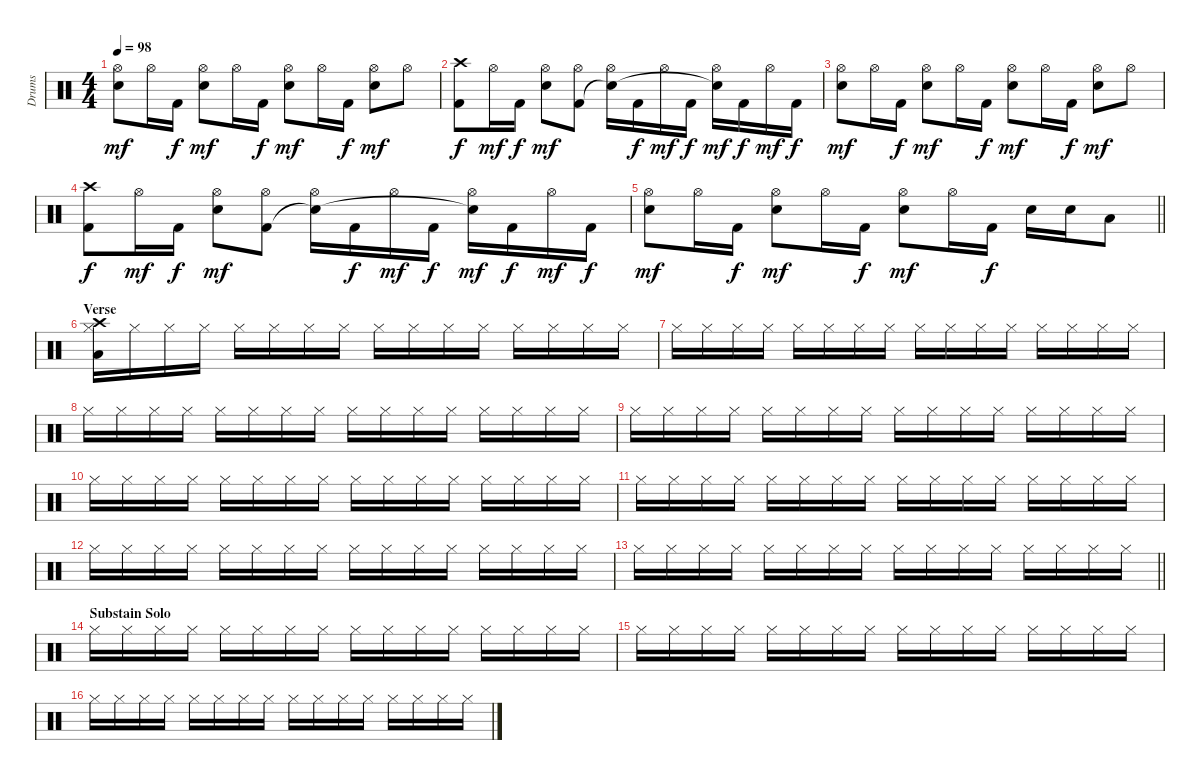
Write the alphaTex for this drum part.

\track ("Drums" "Drums") {instrument percussion}
\staff {score}
\articulation defaults
\ts (4 4)
\tempo 98
\clef neutral
\ks c
("Hi-Hat (open)" "Electric Snare (hit)").8{dy mf} "Hi-Hat (open)".16 "Kick (hit) 2".16{dy f} ("Hi-Hat (open)" "Electric Snare (hit)").8{dy mf} "Hi-Hat (open)".16 "Kick (hit) 2".16{dy f} ("Hi-Hat (open)" "Electric Snare (hit)").8{dy mf} "Hi-Hat (open)".16 "Kick (hit) 2".16{dy f} ("Hi-Hat (open)" "Electric Snare (hit)").8{dy mf} "Hi-Hat (open)".8 |
("Crash high (hit)" "Kick (hit) 2").8{dy f} "Hi-Hat (open)".16{dy mf} "Kick (hit) 2".16{dy f} ("Hi-Hat (open)" "Electric Snare (hit)").8{dy mf} ("Hi-Hat (open)" "Kick (hit) 2").8 ("Hi-Hat (open)" "Snare (hit)"{t}).16 "Kick (hit) 2".16{dy f} "Hi-Hat (open)".16{dy mf} "Kick (hit) 2".16{dy f} ("Hi-Hat (open)" "Snare (hit)"{t}).16{dy mf} "Kick (hit) 2".16{dy f} "Hi-Hat (open)".16{dy mf} "Kick (hit) 2".16{dy f} |
("Hi-Hat (open)" "Electric Snare (hit)").8{dy mf} "Hi-Hat (open)".16 "Kick (hit) 2".16{dy f} ("Hi-Hat (open)" "Electric Snare (hit)").8{dy mf} "Hi-Hat (open)".16 "Kick (hit) 2".16{dy f} ("Hi-Hat (open)" "Electric Snare (hit)").8{dy mf} "Hi-Hat (open)".16 "Kick (hit) 2".16{dy f} ("Hi-Hat (open)" "Electric Snare (hit)").8{dy mf} "Hi-Hat (open)".8 |
("Crash high (hit)" "Kick (hit) 2").8{dy f} "Hi-Hat (open)".16{dy mf} "Kick (hit) 2".16{dy f} ("Hi-Hat (open)" "Electric Snare (hit)").8{dy mf} ("Hi-Hat (open)" "Kick (hit) 2").8 ("Hi-Hat (open)" "Snare (hit)"{t}).16 "Kick (hit) 2".16{dy f} "Hi-Hat (open)".16{dy mf} "Kick (hit) 2".16{dy f} ("Hi-Hat (open)" "Snare (hit)"{t}).16{dy mf} "Kick (hit) 2".16{dy f} "Hi-Hat (open)".16{dy mf} "Kick (hit) 2".16{dy f} |
\barLineRight lightlight
("Hi-Hat (open)" "Electric Snare (hit)").8{dy mf} "Hi-Hat (open)".16 "Kick (hit) 2".16{dy f} ("Hi-Hat (open)" "Electric Snare (hit)").8{dy mf} "Hi-Hat (open)".16 "Kick (hit) 2".16{dy f} ("Hi-Hat (open)" "Electric Snare (hit)").8{dy mf} "Hi-Hat (open)".16 "Kick (hit) 2".16{dy f} "Electric Snare (hit)".16 "Electric Snare (hit)".16 "Low Tom (hit)".8 |
\section ("" "Verse")
("Crash high (hit)" "Low Floor Tom (hit)" "Hi-Hat (closed)").16 "Hi-Hat (closed)".16 "Hi-Hat (closed)".16 "Hi-Hat (closed)".16 "Hi-Hat (closed)".16 "Hi-Hat (closed)".16 "Hi-Hat (closed)".16 "Hi-Hat (closed)".16 "Hi-Hat (closed)".16 "Hi-Hat (closed)".16 "Hi-Hat (closed)".16 "Hi-Hat (closed)".16 "Hi-Hat (closed)".16 "Hi-Hat (closed)".16 "Hi-Hat (closed)".16 "Hi-Hat (closed)".16 |
"Hi-Hat (closed)".16 "Hi-Hat (closed)".16 "Hi-Hat (closed)".16 "Hi-Hat (closed)".16 "Hi-Hat (closed)".16 "Hi-Hat (closed)".16 "Hi-Hat (closed)".16 "Hi-Hat (closed)".16 "Hi-Hat (closed)".16 "Hi-Hat (closed)".16 "Hi-Hat (closed)".16 "Hi-Hat (closed)".16 "Hi-Hat (closed)".16 "Hi-Hat (closed)".16 "Hi-Hat (closed)".16 "Hi-Hat (closed)".16 |
"Hi-Hat (closed)".16 "Hi-Hat (closed)".16 "Hi-Hat (closed)".16 "Hi-Hat (closed)".16 "Hi-Hat (closed)".16 "Hi-Hat (closed)".16 "Hi-Hat (closed)".16 "Hi-Hat (closed)".16 "Hi-Hat (closed)".16 "Hi-Hat (closed)".16 "Hi-Hat (closed)".16 "Hi-Hat (closed)".16 "Hi-Hat (closed)".16 "Hi-Hat (closed)".16 "Hi-Hat (closed)".16 "Hi-Hat (closed)".16 |
"Hi-Hat (closed)".16 "Hi-Hat (closed)".16 "Hi-Hat (closed)".16 "Hi-Hat (closed)".16 "Hi-Hat (closed)".16 "Hi-Hat (closed)".16 "Hi-Hat (closed)".16 "Hi-Hat (closed)".16 "Hi-Hat (closed)".16 "Hi-Hat (closed)".16 "Hi-Hat (closed)".16 "Hi-Hat (closed)".16 "Hi-Hat (closed)".16 "Hi-Hat (closed)".16 "Hi-Hat (closed)".16 "Hi-Hat (closed)".16 |
"Hi-Hat (closed)".16 "Hi-Hat (closed)".16 "Hi-Hat (closed)".16 "Hi-Hat (closed)".16 "Hi-Hat (closed)".16 "Hi-Hat (closed)".16 "Hi-Hat (closed)".16 "Hi-Hat (closed)".16 "Hi-Hat (closed)".16 "Hi-Hat (closed)".16 "Hi-Hat (closed)".16 "Hi-Hat (closed)".16 "Hi-Hat (closed)".16 "Hi-Hat (closed)".16 "Hi-Hat (closed)".16 "Hi-Hat (closed)".16 |
"Hi-Hat (closed)".16 "Hi-Hat (closed)".16 "Hi-Hat (closed)".16 "Hi-Hat (closed)".16 "Hi-Hat (closed)".16 "Hi-Hat (closed)".16 "Hi-Hat (closed)".16 "Hi-Hat (closed)".16 "Hi-Hat (closed)".16 "Hi-Hat (closed)".16 "Hi-Hat (closed)".16 "Hi-Hat (closed)".16 "Hi-Hat (closed)".16 "Hi-Hat (closed)".16 "Hi-Hat (closed)".16 "Hi-Hat (closed)".16 |
"Hi-Hat (closed)".16 "Hi-Hat (closed)".16 "Hi-Hat (closed)".16 "Hi-Hat (closed)".16 "Hi-Hat (closed)".16 "Hi-Hat (closed)".16 "Hi-Hat (closed)".16 "Hi-Hat (closed)".16 "Hi-Hat (closed)".16 "Hi-Hat (closed)".16 "Hi-Hat (closed)".16 "Hi-Hat (closed)".16 "Hi-Hat (closed)".16 "Hi-Hat (closed)".16 "Hi-Hat (closed)".16 "Hi-Hat (closed)".16 |
\barLineRight lightlight "Hi-Hat (closed)".16 "Hi-Hat (closed)".16 "Hi-Hat (closed)".16 "Hi-Hat (closed)".16 "Hi-Hat (closed)".16 "Hi-Hat (closed)".16 "Hi-Hat (closed)".16 "Hi-Hat (closed)".16 "Hi-Hat (closed)".16 "Hi-Hat (closed)".16 "Hi-Hat (closed)".16 "Hi-Hat (closed)".16 "Hi-Hat (closed)".16 "Hi-Hat (closed)".16 "Hi-Hat (closed)".16 "Hi-Hat (closed)".16
|
\section ("" "Substain Solo")
"Hi-Hat (closed)".16 "Hi-Hat (closed)".16 "Hi-Hat (closed)".16 "Hi-Hat (closed)".16 "Hi-Hat (closed)".16 "Hi-Hat (closed)".16 "Hi-Hat (closed)".16 "Hi-Hat (closed)".16 "Hi-Hat (closed)".16 "Hi-Hat (closed)".16 "Hi-Hat (closed)".16 "Hi-Hat (closed)".16 "Hi-Hat (closed)".16 "Hi-Hat (closed)".16 "Hi-Hat (closed)".16 "Hi-Hat (closed)".16 |
"Hi-Hat (closed)".16 "Hi-Hat (closed)".16 "Hi-Hat (closed)".16 "Hi-Hat (closed)".16 "Hi-Hat (closed)".16 "Hi-Hat (closed)".16 "Hi-Hat (closed)".16 "Hi-Hat (closed)".16 "Hi-Hat (closed)".16 "Hi-Hat (closed)".16 "Hi-Hat (closed)".16 "Hi-Hat (closed)".16 "Hi-Hat (closed)".16 "Hi-Hat (closed)".16 "Hi-Hat (closed)".16 "Hi-Hat (closed)".16 |
"Hi-Hat (closed)".16 "Hi-Hat (closed)".16 "Hi-Hat (closed)".16 "Hi-Hat (closed)".16 "Hi-Hat (closed)".16 "Hi-Hat (closed)".16 "Hi-Hat (closed)".16 "Hi-Hat (closed)".16 "Hi-Hat (closed)".16 "Hi-Hat (closed)".16 "Hi-Hat (closed)".16 "Hi-Hat (closed)".16 "Hi-Hat (closed)".16 "Hi-Hat (closed)".16 "Hi-Hat (closed)".16 "Hi-Hat (closed)".16
